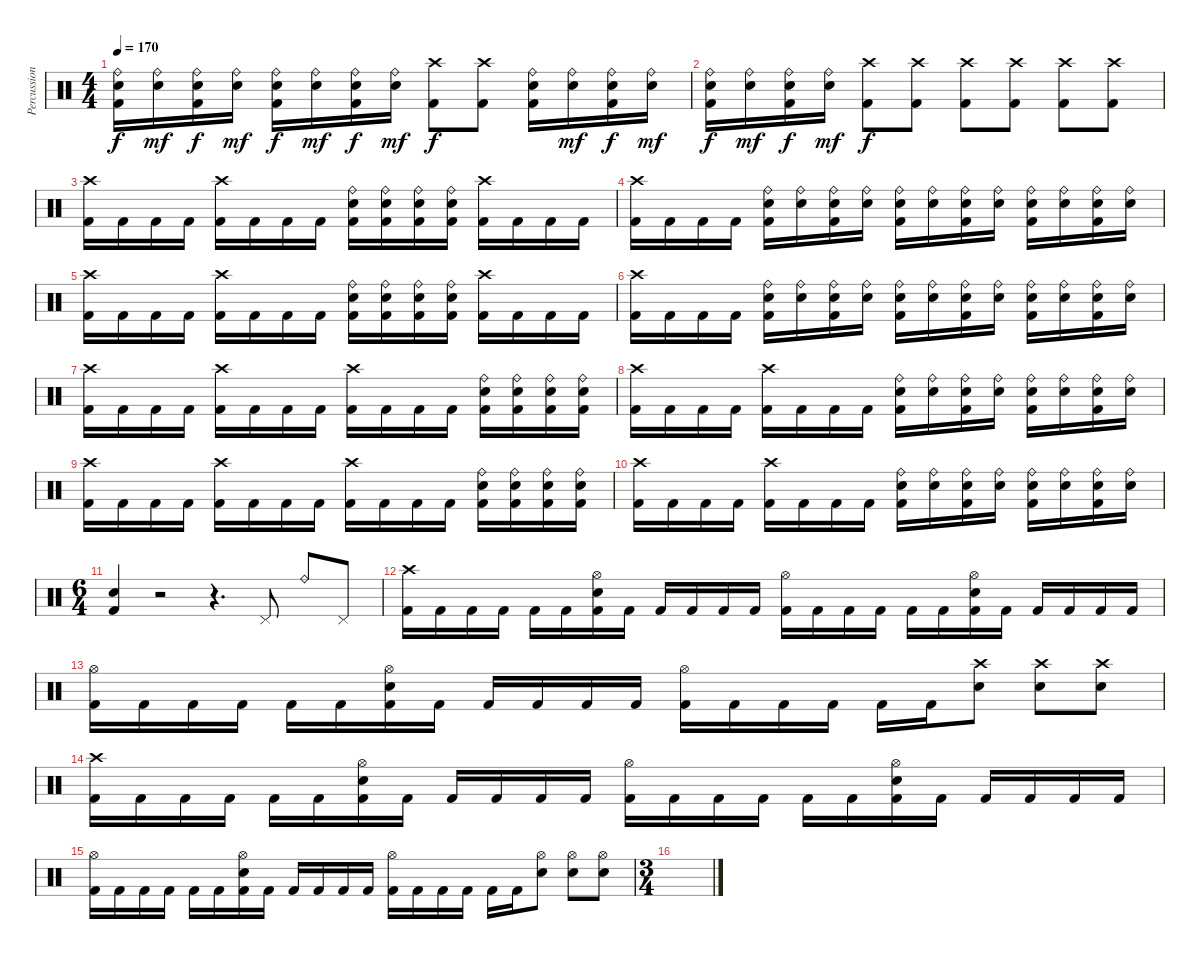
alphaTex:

\track ("Percussion" "Percussion") {instrument percussion}
\staff {score}
\articulation defaults
\ts (4 4)
\tempo 170
\clef neutral
\ks c
("Ride (bell)" "Electric Snare (hit)" "Kick (hit) 2").16{dy f} ("Ride (bell)" "Electric Snare (hit)").16{dy mf} ("Ride (bell)" "Electric Snare (hit)" "Kick (hit) 2").16{dy f} ("Ride (bell)" "Electric Snare (hit)").16{dy mf} ("Ride (bell)" "Electric Snare (hit)" "Kick (hit) 2").16{dy f} ("Ride (bell)" "Electric Snare (hit)").16{dy mf} ("Ride (bell)" "Electric Snare (hit)" "Kick (hit) 2").16{dy f} ("Ride (bell)" "Electric Snare (hit)").16{dy mf} ("Crash high (hit)" "Kick (hit) 2").8{dy f} ("Crash high (hit)" "Kick (hit) 2").8 ("Ride (bell)" "Electric Snare (hit)" "Kick (hit) 2").16 ("Ride (bell)" "Electric Snare (hit)").16{dy mf} ("Ride (bell)" "Electric Snare (hit)" "Kick (hit) 2").16{dy f} ("Ride (bell)" "Electric Snare (hit)").16{dy mf} |
("Ride (bell)" "Electric Snare (hit)" "Kick (hit) 2").16{dy f} ("Ride (bell)" "Electric Snare (hit)").16{dy mf} ("Ride (bell)" "Electric Snare (hit)" "Kick (hit) 2").16{dy f} ("Ride (bell)" "Electric Snare (hit)").16{dy mf} ("Crash high (hit)" "Kick (hit) 2").8{dy f} ("Crash high (hit)" "Kick (hit) 2").8 ("Crash high (hit)" "Kick (hit) 2").8 ("Crash high (hit)" "Kick (hit) 2").8 ("Crash high (hit)" "Kick (hit) 2").8 ("Crash high (hit)" "Kick (hit) 2").8 |
("Crash high (hit)" "Kick (hit) 2").16 "Kick (hit) 2".16 "Kick (hit) 2".16 "Kick (hit) 2".16 ("Crash high (hit)" "Kick (hit) 2").16 "Kick (hit) 2".16 "Kick (hit) 2".16 "Kick (hit) 2".16 ("Ride (bell)" "Electric Snare (hit)" "Kick (hit) 2").16 ("Ride (bell)" "Electric Snare (hit)" "Kick (hit) 2").16 ("Ride (bell)" "Electric Snare (hit)" "Kick (hit) 2").16 ("Ride (bell)" "Electric Snare (hit)" "Kick (hit) 2").16 ("Crash high (hit)" "Kick (hit) 2").16 "Kick (hit) 2".16 "Kick (hit) 2".16 "Kick (hit) 2".16 |
("Crash high (hit)" "Kick (hit) 2").16 "Kick (hit) 2".16 "Kick (hit) 2".16 "Kick (hit) 2".16 ("Ride (bell)" "Electric Snare (hit)" "Kick (hit) 2").16 ("Ride (bell)" "Electric Snare (hit)").16 ("Ride (bell)" "Electric Snare (hit)" "Kick (hit) 2").16 ("Ride (bell)" "Electric Snare (hit)").16 ("Ride (bell)" "Electric Snare (hit)" "Kick (hit) 2").16 ("Ride (bell)" "Electric Snare (hit)").16 ("Ride (bell)" "Electric Snare (hit)" "Kick (hit) 2").16 ("Ride (bell)" "Electric Snare (hit)").16 ("Ride (bell)" "Electric Snare (hit)" "Kick (hit) 2").16 ("Ride (bell)" "Electric Snare (hit)").16 ("Ride (bell)" "Electric Snare (hit)" "Kick (hit) 2").16 ("Ride (bell)" "Electric Snare (hit)").16 |
("Crash high (hit)" "Kick (hit) 2").16 "Kick (hit) 2".16 "Kick (hit) 2".16 "Kick (hit) 2".16 ("Crash high (hit)" "Kick (hit) 2").16 "Kick (hit) 2".16 "Kick (hit) 2".16 "Kick (hit) 2".16 ("Ride (bell)" "Electric Snare (hit)" "Kick (hit) 2").16 ("Ride (bell)" "Electric Snare (hit)" "Kick (hit) 2").16 ("Ride (bell)" "Electric Snare (hit)" "Kick (hit) 2").16 ("Ride (bell)" "Electric Snare (hit)" "Kick (hit) 2").16 ("Crash high (hit)" "Kick (hit) 2").16 "Kick (hit) 2".16 "Kick (hit) 2".16 "Kick (hit) 2".16 |
("Crash high (hit)" "Kick (hit) 2").16 "Kick (hit) 2".16 "Kick (hit) 2".16 "Kick (hit) 2".16 ("Ride (bell)" "Electric Snare (hit)" "Kick (hit) 2").16 ("Ride (bell)" "Electric Snare (hit)").16 ("Ride (bell)" "Electric Snare (hit)" "Kick (hit) 2").16 ("Ride (bell)" "Electric Snare (hit)").16 ("Ride (bell)" "Electric Snare (hit)" "Kick (hit) 2").16 ("Ride (bell)" "Electric Snare (hit)").16 ("Ride (bell)" "Electric Snare (hit)" "Kick (hit) 2").16 ("Ride (bell)" "Electric Snare (hit)").16 ("Ride (bell)" "Electric Snare (hit)" "Kick (hit) 2").16 ("Ride (bell)" "Electric Snare (hit)").16 ("Ride (bell)" "Electric Snare (hit)" "Kick (hit) 2").16 ("Ride (bell)" "Electric Snare (hit)").16 |
("Crash high (hit)" "Kick (hit) 2").16 "Kick (hit) 2".16 "Kick (hit) 2".16 "Kick (hit) 2".16 ("Crash high (hit)" "Kick (hit) 2").16 "Kick (hit) 2".16 "Kick (hit) 2".16 "Kick (hit) 2".16 ("Crash high (hit)" "Kick (hit) 2").16 "Kick (hit) 2".16 "Kick (hit) 2".16 "Kick (hit) 2".16 ("Ride (bell)" "Electric Snare (hit)" "Kick (hit) 2").16 ("Ride (bell)" "Electric Snare (hit)" "Kick (hit) 2").16 ("Ride (bell)" "Electric Snare (hit)" "Kick (hit) 2").16 ("Ride (bell)" "Electric Snare (hit)" "Kick (hit) 2").16 |
("Crash high (hit)" "Kick (hit) 2").16 "Kick (hit) 2".16 "Kick (hit) 2".16 "Kick (hit) 2".16 ("Crash high (hit)" "Kick (hit) 2").16 "Kick (hit) 2".16 "Kick (hit) 2".16 "Kick (hit) 2".16 ("Ride (bell)" "Electric Snare (hit)" "Kick (hit) 2").16 ("Ride (bell)" "Electric Snare (hit)").16 ("Ride (bell)" "Electric Snare (hit)" "Kick (hit) 2").16 ("Ride (bell)" "Electric Snare (hit)").16 ("Ride (bell)" "Electric Snare (hit)" "Kick (hit) 2").16 ("Ride (bell)" "Electric Snare (hit)").16 ("Ride (bell)" "Electric Snare (hit)" "Kick (hit) 2").16 ("Ride (bell)" "Electric Snare (hit)").16 |
("Crash high (hit)" "Kick (hit) 2").16 "Kick (hit) 2".16 "Kick (hit) 2".16 "Kick (hit) 2".16 ("Crash high (hit)" "Kick (hit) 2").16 "Kick (hit) 2".16 "Kick (hit) 2".16 "Kick (hit) 2".16 ("Crash high (hit)" "Kick (hit) 2").16 "Kick (hit) 2".16 "Kick (hit) 2".16 "Kick (hit) 2".16 ("Ride (bell)" "Electric Snare (hit)" "Kick (hit) 2").16 ("Ride (bell)" "Electric Snare (hit)" "Kick (hit) 2").16 ("Ride (bell)" "Electric Snare (hit)" "Kick (hit) 2").16 ("Ride (bell)" "Electric Snare (hit)" "Kick (hit) 2").16 |
("Crash high (hit)" "Kick (hit) 2").16 "Kick (hit) 2".16 "Kick (hit) 2".16 "Kick (hit) 2".16 ("Crash high (hit)" "Kick (hit) 2").16 "Kick (hit) 2".16 "Kick (hit) 2".16 "Kick (hit) 2".16 ("Ride (bell)" "Electric Snare (hit)" "Kick (hit) 2").16 ("Ride (bell)" "Electric Snare (hit)").16 ("Ride (bell)" "Electric Snare (hit)" "Kick (hit) 2").16 ("Ride (bell)" "Electric Snare (hit)").16 ("Ride (bell)" "Electric Snare (hit)" "Kick (hit) 2").16 ("Ride (bell)" "Electric Snare (hit)").16 ("Ride (bell)" "Electric Snare (hit)" "Kick (hit) 2").16 ("Ride (bell)" "Electric Snare (hit)").16 |
\ts (6 4)
("Electric Snare (hit)" "Kick (hit) 2").4 r.2 r.4{d} "Pedal Hi-Hat (hit)".8 "Ride (bell)".8 "Pedal Hi-Hat (hit)".8 |
("Crash high (hit)" "Kick (hit) 2").16 "Kick (hit) 2".16 "Kick (hit) 2".16 "Kick (hit) 2".16 "Kick (hit) 2".16 "Kick (hit) 2".16 ("Hi-Hat (open)" "Electric Snare (hit)" "Kick (hit) 2").16 "Kick (hit) 2".16 "Kick (hit) 2".16 "Kick (hit) 2".16 "Kick (hit) 2".16 "Kick (hit) 2".16 ("Hi-Hat (open)" "Kick (hit) 2").16 "Kick (hit) 2".16 "Kick (hit) 2".16 "Kick (hit) 2".16 "Kick (hit) 2".16 "Kick (hit) 2".16 ("Hi-Hat (open)" "Electric Snare (hit)" "Kick (hit) 2").16 "Kick (hit) 2".16 "Kick (hit) 2".16 "Kick (hit) 2".16 "Kick (hit) 2".16 "Kick (hit) 2".16 |
("Hi-Hat (open)" "Kick (hit) 2").16 "Kick (hit) 2".16 "Kick (hit) 2".16 "Kick (hit) 2".16 "Kick (hit) 2".16 "Kick (hit) 2".16 ("Hi-Hat (open)" "Electric Snare (hit)" "Kick (hit) 2").16 "Kick (hit) 2".16 "Kick (hit) 2".16 "Kick (hit) 2".16 "Kick (hit) 2".16 "Kick (hit) 2".16 ("Hi-Hat (open)" "Kick (hit) 2").16 "Kick (hit) 2".16 "Kick (hit) 2".16 "Kick (hit) 2".16 "Kick (hit) 2".16 "Kick (hit) 2".16 ("Crash high (hit)" "Electric Snare (hit)").8 ("Crash high (hit)" "Electric Snare (hit)").8 ("Crash high (hit)" "Electric Snare (hit)").8 |
("Crash high (hit)" "Kick (hit) 2").16 "Kick (hit) 2".16 "Kick (hit) 2".16 "Kick (hit) 2".16 "Kick (hit) 2".16 "Kick (hit) 2".16 ("Hi-Hat (open)" "Electric Snare (hit)" "Kick (hit) 2").16 "Kick (hit) 2".16 "Kick (hit) 2".16 "Kick (hit) 2".16 "Kick (hit) 2".16 "Kick (hit) 2".16 ("Hi-Hat (open)" "Kick (hit) 2").16 "Kick (hit) 2".16 "Kick (hit) 2".16 "Kick (hit) 2".16 "Kick (hit) 2".16 "Kick (hit) 2".16 ("Hi-Hat (open)" "Electric Snare (hit)" "Kick (hit) 2").16 "Kick (hit) 2".16 "Kick (hit) 2".16 "Kick (hit) 2".16 "Kick (hit) 2".16 "Kick (hit) 2".16 |
("Hi-Hat (open)" "Kick (hit) 2").16 "Kick (hit) 2".16 "Kick (hit) 2".16 "Kick (hit) 2".16 "Kick (hit) 2".16 "Kick (hit) 2".16 ("Hi-Hat (open)" "Electric Snare (hit)" "Kick (hit) 2").16 "Kick (hit) 2".16 "Kick (hit) 2".16 "Kick (hit) 2".16 "Kick (hit) 2".16 "Kick (hit) 2".16 ("Hi-Hat (open)" "Kick (hit) 2").16 "Kick (hit) 2".16 "Kick (hit) 2".16 "Kick (hit) 2".16 "Kick (hit) 2".16 "Kick (hit) 2".16 ("Hi-Hat (open)" "Electric Snare (hit)").8 ("Hi-Hat (open)" "Electric Snare (hit)").8 ("Hi-Hat (open)" "Electric Snare (hit)").8 |
\ts (3 4)
